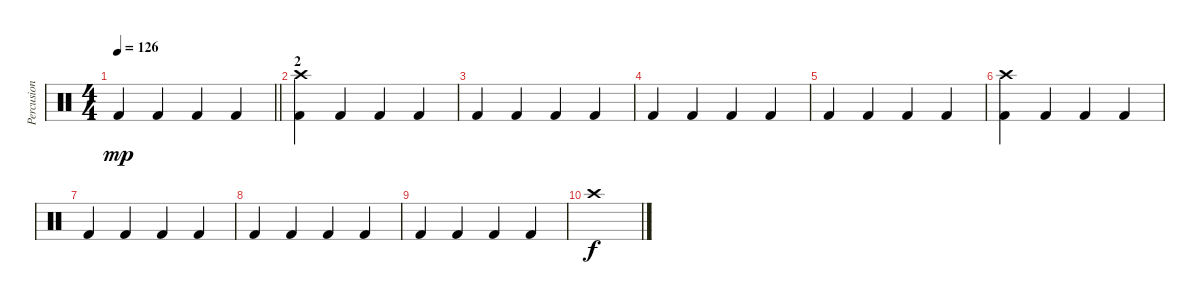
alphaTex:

\track ("Percusion" "Percusion") {instrument percussion}
\staff {score}
\articulation defaults
\ts (4 4)
\tempo 126
\clef neutral
\barLineRight lightlight
\ks c "Kick (hit) 2".4{dy mp} "Kick (hit) 2".4 "Kick (hit) 2".4 "Kick (hit) 2".4
|
\section ("" "2")
("Crash high (hit)" "Kick (hit) 2").4 "Kick (hit) 2".4 "Kick (hit) 2".4 "Kick (hit) 2".4 |
"Kick (hit) 2".4 "Kick (hit) 2".4 "Kick (hit) 2".4 "Kick (hit) 2".4 |
"Kick (hit) 2".4 "Kick (hit) 2".4 "Kick (hit) 2".4 "Kick (hit) 2".4 |
"Kick (hit) 2".4 "Kick (hit) 2".4 "Kick (hit) 2".4 "Kick (hit) 2".4 |
("Crash high (hit)" "Kick (hit) 2").4 "Kick (hit) 2".4 "Kick (hit) 2".4 "Kick (hit) 2".4 |
"Kick (hit) 2".4 "Kick (hit) 2".4 "Kick (hit) 2".4 "Kick (hit) 2".4 |
"Kick (hit) 2".4 "Kick (hit) 2".4 "Kick (hit) 2".4 "Kick (hit) 2".4 |
"Kick (hit) 2".4 "Kick (hit) 2".4 "Kick (hit) 2".4 "Kick (hit) 2".4 |
"Crash high (hit)".1{dy f}
